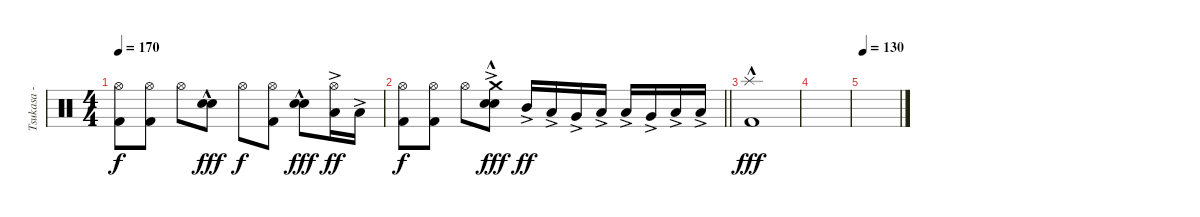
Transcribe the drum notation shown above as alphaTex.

\track ("Tsukasa - Drums" "Tsukasa - ") {instrument percussion}
\staff {score}
\articulation defaults
\ts (4 4)
\tempo 170
\clef neutral
\ks c
("Hi-Hat (open)" "Kick (hit) 2").8{dy f} ("Hi-Hat (open)" "Kick (hit) 2").8 "Hi-Hat (open)".8 ("Electric Snare (hit)"{hac} "Snare (hit) 2").8{dy fff} "Hi-Hat (open)".8{dy f} ("Hi-Hat (open)" "Kick (hit) 2").8 ("Electric Snare (hit)"{hac} "Snare (hit) 2").8{dy fff} ("Hi-Hat (open)" "Low Tom (hit)"{ac}).16{dy ff} "Low Tom (hit)"{ac}.16 |
\barLineRight lightlight
("Hi-Hat (open)" "Kick (hit) 2").8{dy f} ("Hi-Hat (open)" "Kick (hit) 2").8 "Hi-Hat (open)".8 ("Crash medium (hit)"{ac} "Electric Snare (hit)"{hac} "Snare (hit) 2").8{dy fff} "Mid Tom (hit)"{ac}.16{dy ff} "Low Tom (hit)"{ac}.16 "Very Low Tom (hit)"{ac}.16 "Low Floor Tom (hit)"{ac}.16 "Low Tom (hit)"{ac}.16 "Very Low Tom (hit)"{ac}.16 "Low Floor Tom (hit)"{ac}.16 "Low Floor Tom (hit)"{ac}.16 |
\section ("" "")
("Splash (hit)"{hac} "Kick (hit) 2").1{dy fff} |
|
\tempo 130
